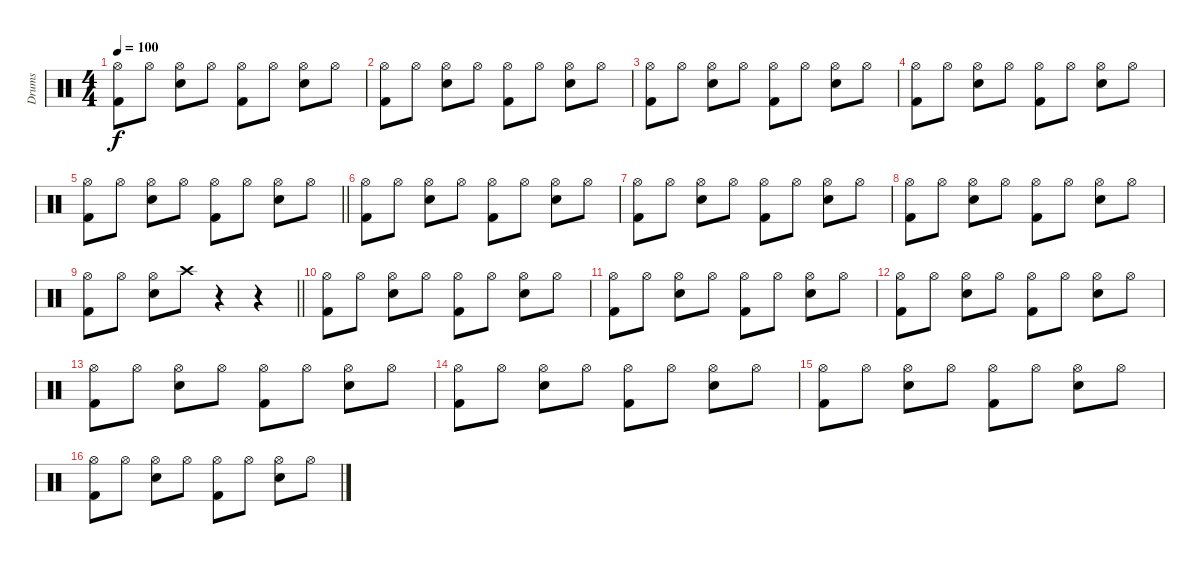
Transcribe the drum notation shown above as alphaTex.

\track ("Drums" "Drums") {instrument percussion}
\staff {score}
\articulation defaults
\ts (4 4)
\tempo 100
\clef neutral
\ks c
("Hi-Hat (open)" "Kick (hit) 2").8{dy f} "Hi-Hat (open)".8 ("Hi-Hat (open)" "Electric Snare (hit)").8 "Hi-Hat (open)".8 ("Hi-Hat (open)" "Kick (hit) 2").8 "Hi-Hat (open)".8 ("Hi-Hat (open)" "Electric Snare (hit)").8 "Hi-Hat (open)".8 |
("Hi-Hat (open)" "Kick (hit) 2").8 "Hi-Hat (open)".8 ("Hi-Hat (open)" "Electric Snare (hit)").8 "Hi-Hat (open)".8 ("Hi-Hat (open)" "Kick (hit) 2").8 "Hi-Hat (open)".8 ("Hi-Hat (open)" "Electric Snare (hit)").8 "Hi-Hat (open)".8 |
("Hi-Hat (open)" "Kick (hit) 2").8 "Hi-Hat (open)".8 ("Hi-Hat (open)" "Electric Snare (hit)").8 "Hi-Hat (open)".8 ("Hi-Hat (open)" "Kick (hit) 2").8 "Hi-Hat (open)".8 ("Hi-Hat (open)" "Electric Snare (hit)").8 "Hi-Hat (open)".8 |
("Hi-Hat (open)" "Kick (hit) 2").8 "Hi-Hat (open)".8 ("Hi-Hat (open)" "Electric Snare (hit)").8 "Hi-Hat (open)".8 ("Hi-Hat (open)" "Kick (hit) 2").8 "Hi-Hat (open)".8 ("Hi-Hat (open)" "Electric Snare (hit)").8 "Hi-Hat (open)".8 |
\barLineRight lightlight
("Hi-Hat (open)" "Kick (hit) 2").8 "Hi-Hat (open)".8 ("Hi-Hat (open)" "Electric Snare (hit)").8 "Hi-Hat (open)".8 ("Hi-Hat (open)" "Kick (hit) 2").8 "Hi-Hat (open)".8 ("Hi-Hat (open)" "Electric Snare (hit)").8 "Hi-Hat (open)".8 |
("Hi-Hat (open)" "Kick (hit) 2").8 "Hi-Hat (open)".8 ("Hi-Hat (open)" "Electric Snare (hit)").8 "Hi-Hat (open)".8 ("Hi-Hat (open)" "Kick (hit) 2").8 "Hi-Hat (open)".8 ("Hi-Hat (open)" "Electric Snare (hit)").8 "Hi-Hat (open)".8 |
("Hi-Hat (open)" "Kick (hit) 2").8 "Hi-Hat (open)".8 ("Hi-Hat (open)" "Electric Snare (hit)").8 "Hi-Hat (open)".8 ("Hi-Hat (open)" "Kick (hit) 2").8 "Hi-Hat (open)".8 ("Hi-Hat (open)" "Electric Snare (hit)").8 "Hi-Hat (open)".8 |
("Hi-Hat (open)" "Kick (hit) 2").8 "Hi-Hat (open)".8 ("Hi-Hat (open)" "Electric Snare (hit)").8 "Hi-Hat (open)".8 ("Hi-Hat (open)" "Kick (hit) 2").8 "Hi-Hat (open)".8 ("Hi-Hat (open)" "Electric Snare (hit)").8 "Hi-Hat (open)".8 |
\barLineRight lightlight
("Hi-Hat (open)" "Kick (hit) 2").8 "Hi-Hat (open)".8 ("Hi-Hat (open)" "Electric Snare (hit)").8 "Crash high (hit)".8 r.4 r.4 |
("Hi-Hat (open)" "Kick (hit) 2").8 "Hi-Hat (open)".8 ("Hi-Hat (open)" "Electric Snare (hit)").8 "Hi-Hat (open)".8 ("Hi-Hat (open)" "Kick (hit) 2").8 "Hi-Hat (open)".8 ("Hi-Hat (open)" "Electric Snare (hit)").8 "Hi-Hat (open)".8 |
("Hi-Hat (open)" "Kick (hit) 2").8 "Hi-Hat (open)".8 ("Hi-Hat (open)" "Electric Snare (hit)").8 "Hi-Hat (open)".8 ("Hi-Hat (open)" "Kick (hit) 2").8 "Hi-Hat (open)".8 ("Hi-Hat (open)" "Electric Snare (hit)").8 "Hi-Hat (open)".8 |
("Hi-Hat (open)" "Kick (hit) 2").8 "Hi-Hat (open)".8 ("Hi-Hat (open)" "Electric Snare (hit)").8 "Hi-Hat (open)".8 ("Hi-Hat (open)" "Kick (hit) 2").8 "Hi-Hat (open)".8 ("Hi-Hat (open)" "Electric Snare (hit)").8 "Hi-Hat (open)".8 |
("Hi-Hat (open)" "Kick (hit) 2").8 "Hi-Hat (open)".8 ("Hi-Hat (open)" "Electric Snare (hit)").8 "Hi-Hat (open)".8 ("Hi-Hat (open)" "Kick (hit) 2").8 "Hi-Hat (open)".8 ("Hi-Hat (open)" "Electric Snare (hit)").8 "Hi-Hat (open)".8 |
("Hi-Hat (open)" "Kick (hit) 2").8 "Hi-Hat (open)".8 ("Hi-Hat (open)" "Electric Snare (hit)").8 "Hi-Hat (open)".8 ("Hi-Hat (open)" "Kick (hit) 2").8 "Hi-Hat (open)".8 ("Hi-Hat (open)" "Electric Snare (hit)").8 "Hi-Hat (open)".8 |
("Hi-Hat (open)" "Kick (hit) 2").8 "Hi-Hat (open)".8 ("Hi-Hat (open)" "Electric Snare (hit)").8 "Hi-Hat (open)".8 ("Hi-Hat (open)" "Kick (hit) 2").8 "Hi-Hat (open)".8 ("Hi-Hat (open)" "Electric Snare (hit)").8 "Hi-Hat (open)".8 |
("Hi-Hat (open)" "Kick (hit) 2").8 "Hi-Hat (open)".8 ("Hi-Hat (open)" "Electric Snare (hit)").8 "Hi-Hat (open)".8 ("Hi-Hat (open)" "Kick (hit) 2").8 "Hi-Hat (open)".8 ("Hi-Hat (open)" "Electric Snare (hit)").8 "Hi-Hat (open)".8
